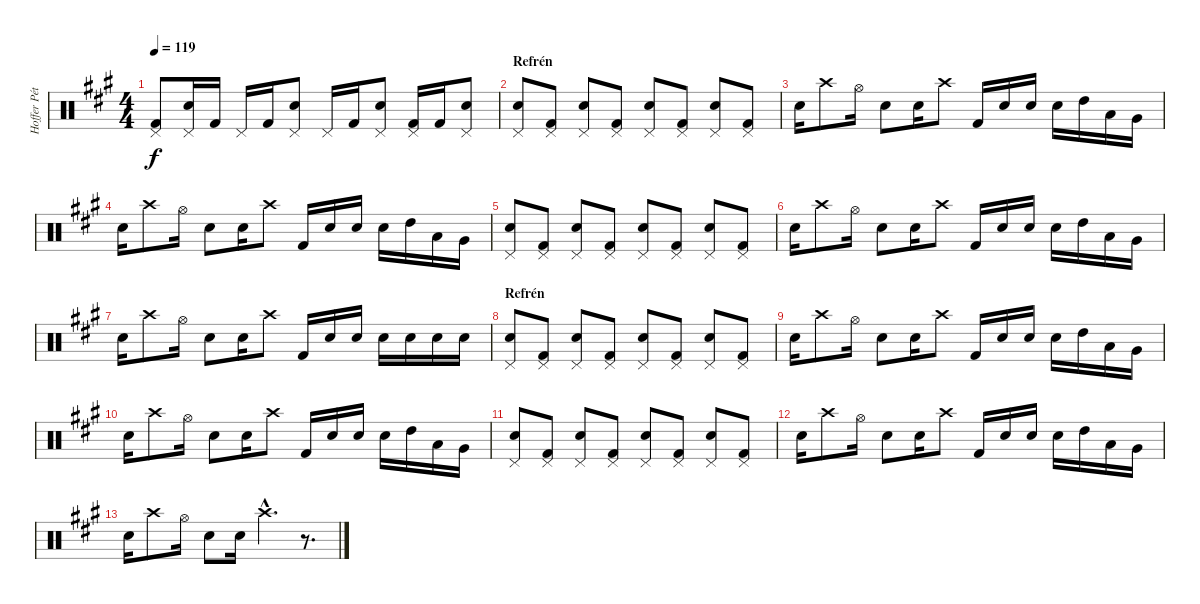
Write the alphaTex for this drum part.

\track ("Hoffer Péter" "Hoffer Pét") {instrument percussion}
\staff {score}
\articulation defaults
\ts (4 4)
\tempo 119
\clef neutral
\ks f#minor
("Pedal Hi-Hat (hit)" "Kick (hit) 2").8{dy f} ("Pedal Hi-Hat (hit)" "Snare (hit) 2").16 "Kick (hit) 2".16 "Pedal Hi-Hat (hit)".16 "Kick (hit) 2".16 ("Pedal Hi-Hat (hit)" "Snare (hit) 2").8 "Pedal Hi-Hat (hit)".16 "Kick (hit) 2".16 ("Pedal Hi-Hat (hit)" "Snare (hit) 2").8 ("Pedal Hi-Hat (hit)" "Kick (hit) 2").16 "Kick (hit) 2".16 ("Pedal Hi-Hat (hit)" "Snare (hit) 2").8 |
\section ("" "Refrén")
("Pedal Hi-Hat (hit)" "Snare (hit) 2").8 ("Pedal Hi-Hat (hit)" "Kick (hit) 2").8 ("Pedal Hi-Hat (hit)" "Snare (hit) 2").8 ("Pedal Hi-Hat (hit)" "Kick (hit) 2").8 ("Pedal Hi-Hat (hit)" "Snare (hit) 2").8 ("Pedal Hi-Hat (hit)" "Kick (hit) 2").8 ("Pedal Hi-Hat (hit)" "Snare (hit) 2").8 ("Pedal Hi-Hat (hit)" "Kick (hit) 2").8 |
"Snare (hit) 2".16 "Crash high (hit)".8 "Hi-Hat (open)".16 "Snare (hit) 2".8 "Snare (hit) 2".16 "Crash high (hit)".8 "Kick (hit) 2".16 "Snare (hit) 2".16 "Snare (hit) 2".16 "Snare (hit) 2".16 "High Tom (hit)".16 "Low Tom (hit)".16 "Very Low Tom (hit)".16 |
"Snare (hit) 2".16 "Crash high (hit)".8 "Hi-Hat (open)".16 "Snare (hit) 2".8 "Snare (hit) 2".16 "Crash high (hit)".8 "Kick (hit) 2".16 "Snare (hit) 2".16 "Snare (hit) 2".16 "Snare (hit) 2".16 "High Tom (hit)".16 "Low Tom (hit)".16 "Very Low Tom (hit)".16 |
("Pedal Hi-Hat (hit)" "Snare (hit) 2").8 ("Pedal Hi-Hat (hit)" "Kick (hit) 2").8 ("Pedal Hi-Hat (hit)" "Snare (hit) 2").8 ("Pedal Hi-Hat (hit)" "Kick (hit) 2").8 ("Pedal Hi-Hat (hit)" "Snare (hit) 2").8 ("Pedal Hi-Hat (hit)" "Kick (hit) 2").8 ("Pedal Hi-Hat (hit)" "Snare (hit) 2").8 ("Pedal Hi-Hat (hit)" "Kick (hit) 2").8 |
"Snare (hit) 2".16 "Crash high (hit)".8 "Hi-Hat (open)".16 "Snare (hit) 2".8 "Snare (hit) 2".16 "Crash high (hit)".8 "Kick (hit) 2".16 "Snare (hit) 2".16 "Snare (hit) 2".16 "Snare (hit) 2".16 "High Tom (hit)".16 "Low Tom (hit)".16 "Very Low Tom (hit)".16 |
"Snare (hit) 2".16 "Crash high (hit)".8 "Hi-Hat (open)".16 "Snare (hit) 2".8 "Snare (hit) 2".16 "Crash high (hit)".8 "Kick (hit) 2".16 "Snare (hit) 2".16 "Snare (hit) 2".16 "Snare (hit) 2".16 "Snare (hit) 2".16 "Snare (hit) 2".16 "Snare (hit) 2".16 |
\section ("" "Refrén")
("Pedal Hi-Hat (hit)" "Snare (hit) 2").8 ("Pedal Hi-Hat (hit)" "Kick (hit) 2").8 ("Pedal Hi-Hat (hit)" "Snare (hit) 2").8 ("Pedal Hi-Hat (hit)" "Kick (hit) 2").8 ("Pedal Hi-Hat (hit)" "Snare (hit) 2").8 ("Pedal Hi-Hat (hit)" "Kick (hit) 2").8 ("Pedal Hi-Hat (hit)" "Snare (hit) 2").8 ("Pedal Hi-Hat (hit)" "Kick (hit) 2").8 |
"Snare (hit) 2".16 "Crash high (hit)".8 "Hi-Hat (open)".16 "Snare (hit) 2".8 "Snare (hit) 2".16 "Crash high (hit)".8 "Kick (hit) 2".16 "Snare (hit) 2".16 "Snare (hit) 2".16 "Snare (hit) 2".16 "High Tom (hit)".16 "Low Tom (hit)".16 "Very Low Tom (hit)".16 |
"Snare (hit) 2".16 "Crash high (hit)".8 "Hi-Hat (open)".16 "Snare (hit) 2".8 "Snare (hit) 2".16 "Crash high (hit)".8 "Kick (hit) 2".16 "Snare (hit) 2".16 "Snare (hit) 2".16 "Snare (hit) 2".16 "High Tom (hit)".16 "Low Tom (hit)".16 "Very Low Tom (hit)".16 |
("Pedal Hi-Hat (hit)" "Snare (hit) 2").8 ("Pedal Hi-Hat (hit)" "Kick (hit) 2").8 ("Pedal Hi-Hat (hit)" "Snare (hit) 2").8 ("Pedal Hi-Hat (hit)" "Kick (hit) 2").8 ("Pedal Hi-Hat (hit)" "Snare (hit) 2").8 ("Pedal Hi-Hat (hit)" "Kick (hit) 2").8 ("Pedal Hi-Hat (hit)" "Snare (hit) 2").8 ("Pedal Hi-Hat (hit)" "Kick (hit) 2").8 |
"Snare (hit) 2".16 "Crash high (hit)".8 "Hi-Hat (open)".16 "Snare (hit) 2".8 "Snare (hit) 2".16 "Crash high (hit)".8 "Kick (hit) 2".16 "Snare (hit) 2".16 "Snare (hit) 2".16 "Snare (hit) 2".16 "High Tom (hit)".16 "Low Tom (hit)".16 "Very Low Tom (hit)".16 |
"Snare (hit) 2".16 "Crash high (hit)".8 "Hi-Hat (open)".16 "Snare (hit) 2".8 "Snare (hit) 2".16 "Crash high (hit)"{hac}.4{d} r.8{d}
